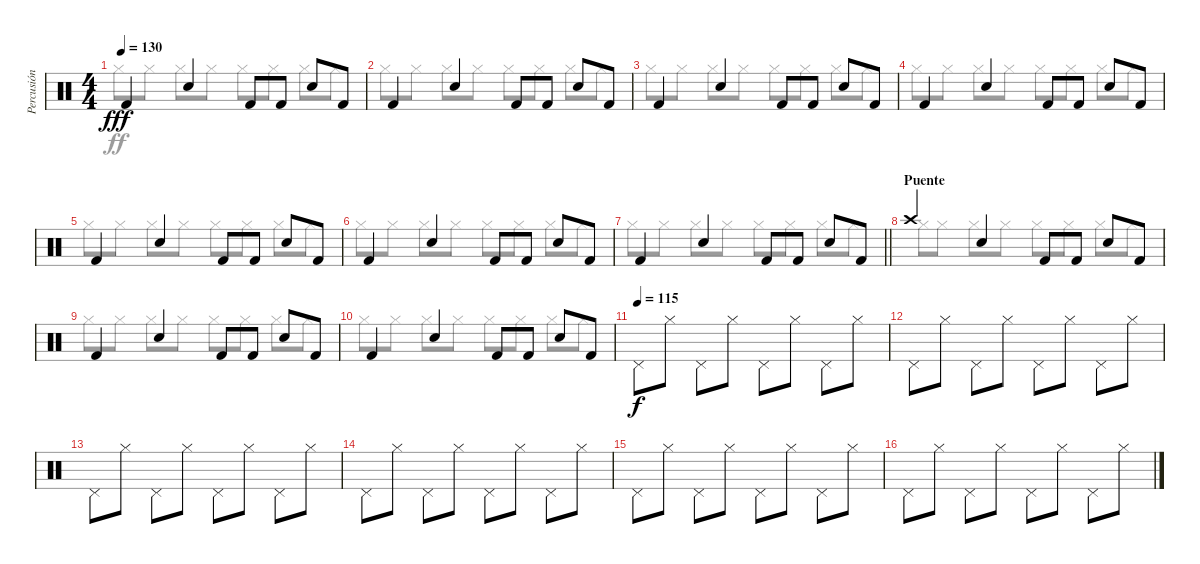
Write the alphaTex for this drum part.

\track ("Percusión" "Percusión") {instrument percussion}
\staff
\articulation defaults
\voice
\ts (4 4)
\tempo 130
\clef neutral
\ks c "Kick (hit) 2".4{dy fff} "Electric Snare (hit)".4 "Kick (hit) 2".8 "Kick (hit) 2".8 "Electric Snare (hit)".8 "Kick (hit) 2".8
|
"Kick (hit) 2".4 "Electric Snare (hit)".4 "Kick (hit) 2".8 "Kick (hit) 2".8 "Electric Snare (hit)".8 "Kick (hit) 2".8 |
"Kick (hit) 2".4 "Electric Snare (hit)".4 "Kick (hit) 2".8 "Kick (hit) 2".8 "Electric Snare (hit)".8 "Kick (hit) 2".8 |
"Kick (hit) 2".4 "Electric Snare (hit)".4 "Kick (hit) 2".8 "Kick (hit) 2".8 "Electric Snare (hit)".8 "Kick (hit) 2".8 |
"Kick (hit) 2".4 "Electric Snare (hit)".4 "Kick (hit) 2".8 "Kick (hit) 2".8 "Electric Snare (hit)".8 "Kick (hit) 2".8 |
"Kick (hit) 2".4 "Electric Snare (hit)".4 "Kick (hit) 2".8 "Kick (hit) 2".8 "Electric Snare (hit)".8 "Kick (hit) 2".8 |
\barLineRight lightlight "Kick (hit) 2".4 "Electric Snare (hit)".4 "Kick (hit) 2".8 "Kick (hit) 2".8 "Electric Snare (hit)".8 "Kick (hit) 2".8
|
\section ("" "Puente")
"Crash high (hit)".4 "Electric Snare (hit)".4 "Kick (hit) 2".8 "Kick (hit) 2".8 "Electric Snare (hit)".8 "Kick (hit) 2".8 |
"Kick (hit) 2".4 "Electric Snare (hit)".4 "Kick (hit) 2".8 "Kick (hit) 2".8 "Electric Snare (hit)".8 "Kick (hit) 2".8 |
"Kick (hit) 2".4 "Electric Snare (hit)".4 "Kick (hit) 2".8 "Kick (hit) 2".8 "Electric Snare (hit)".8 "Kick (hit) 2".8 |
\tempo (115)
"Pedal Hi-Hat (hit)".8{dy f} "Hi-Hat (closed)".8 "Pedal Hi-Hat (hit)".8 "Hi-Hat (closed)".8 "Pedal Hi-Hat (hit)".8 "Hi-Hat (closed)".8 "Pedal Hi-Hat (hit)".8 "Hi-Hat (closed)".8 |
"Pedal Hi-Hat (hit)".8 "Hi-Hat (closed)".8 "Pedal Hi-Hat (hit)".8 "Hi-Hat (closed)".8 "Pedal Hi-Hat (hit)".8 "Hi-Hat (closed)".8 "Pedal Hi-Hat (hit)".8 "Hi-Hat (closed)".8 |
"Pedal Hi-Hat (hit)".8 "Hi-Hat (closed)".8 "Pedal Hi-Hat (hit)".8 "Hi-Hat (closed)".8 "Pedal Hi-Hat (hit)".8 "Hi-Hat (closed)".8 "Pedal Hi-Hat (hit)".8 "Hi-Hat (closed)".8 |
"Pedal Hi-Hat (hit)".8 "Hi-Hat (closed)".8 "Pedal Hi-Hat (hit)".8 "Hi-Hat (closed)".8 "Pedal Hi-Hat (hit)".8 "Hi-Hat (closed)".8 "Pedal Hi-Hat (hit)".8 "Hi-Hat (closed)".8 |
"Pedal Hi-Hat (hit)".8 "Hi-Hat (closed)".8 "Pedal Hi-Hat (hit)".8 "Hi-Hat (closed)".8 "Pedal Hi-Hat (hit)".8 "Hi-Hat (closed)".8 "Pedal Hi-Hat (hit)".8 "Hi-Hat (closed)".8 |
"Pedal Hi-Hat (hit)".8 "Hi-Hat (closed)".8 "Pedal Hi-Hat (hit)".8 "Hi-Hat (closed)".8 "Pedal Hi-Hat (hit)".8 "Hi-Hat (closed)".8 "Pedal Hi-Hat (hit)".8 "Hi-Hat (closed)".8
\voice
\clef neutral
\ottava regular
\simile none
\ks c "Hi-Hat (closed)".8{dy ff} "Hi-Hat (closed)".8 "Hi-Hat (closed)".8 "Hi-Hat (closed)".8 "Hi-Hat (closed)".8 "Hi-Hat (closed)".8 "Hi-Hat (closed)".8 "Hi-Hat (closed)".8
|
"Hi-Hat (closed)".8 "Hi-Hat (closed)".8 "Hi-Hat (closed)".8 "Hi-Hat (closed)".8 "Hi-Hat (closed)".8 "Hi-Hat (closed)".8 "Hi-Hat (closed)".8 "Hi-Hat (closed)".8 |
"Hi-Hat (closed)".8 "Hi-Hat (closed)".8 "Hi-Hat (closed)".8 "Hi-Hat (closed)".8 "Hi-Hat (closed)".8 "Hi-Hat (closed)".8 "Hi-Hat (closed)".8 "Hi-Hat (closed)".8 |
"Hi-Hat (closed)".8 "Hi-Hat (closed)".8 "Hi-Hat (closed)".8 "Hi-Hat (closed)".8 "Hi-Hat (closed)".8 "Hi-Hat (closed)".8 "Hi-Hat (closed)".8 "Hi-Hat (closed)".8 |
"Hi-Hat (closed)".8 "Hi-Hat (closed)".8 "Hi-Hat (closed)".8 "Hi-Hat (closed)".8 "Hi-Hat (closed)".8 "Hi-Hat (closed)".8 "Hi-Hat (closed)".8 "Hi-Hat (closed)".8 |
"Hi-Hat (closed)".8 "Hi-Hat (closed)".8 "Hi-Hat (closed)".8 "Hi-Hat (closed)".8 "Hi-Hat (closed)".8 "Hi-Hat (closed)".8 "Hi-Hat (closed)".8 "Hi-Hat (closed)".8 |
\barLineRight lightlight "Hi-Hat (closed)".8 "Hi-Hat (closed)".8 "Hi-Hat (closed)".8 "Hi-Hat (closed)".8 "Hi-Hat (closed)".8 "Hi-Hat (closed)".8 "Hi-Hat (closed)".8 "Hi-Hat (closed)".8
|
"Hi-Hat (closed)".8 "Hi-Hat (closed)".8 "Hi-Hat (closed)".8 "Hi-Hat (closed)".8 "Hi-Hat (closed)".8 "Hi-Hat (closed)".8 "Hi-Hat (closed)".8 "Hi-Hat (closed)".8 |
"Hi-Hat (closed)".8 "Hi-Hat (closed)".8 "Hi-Hat (closed)".8 "Hi-Hat (closed)".8 "Hi-Hat (closed)".8 "Hi-Hat (closed)".8 "Hi-Hat (closed)".8 "Hi-Hat (closed)".8 |
"Hi-Hat (closed)".8 "Hi-Hat (closed)".8 "Hi-Hat (closed)".8 "Hi-Hat (closed)".8 "Hi-Hat (closed)".8 "Hi-Hat (closed)".8 "Hi-Hat (closed)".8 "Hi-Hat (closed)".8 |
|
|
|
|
|
